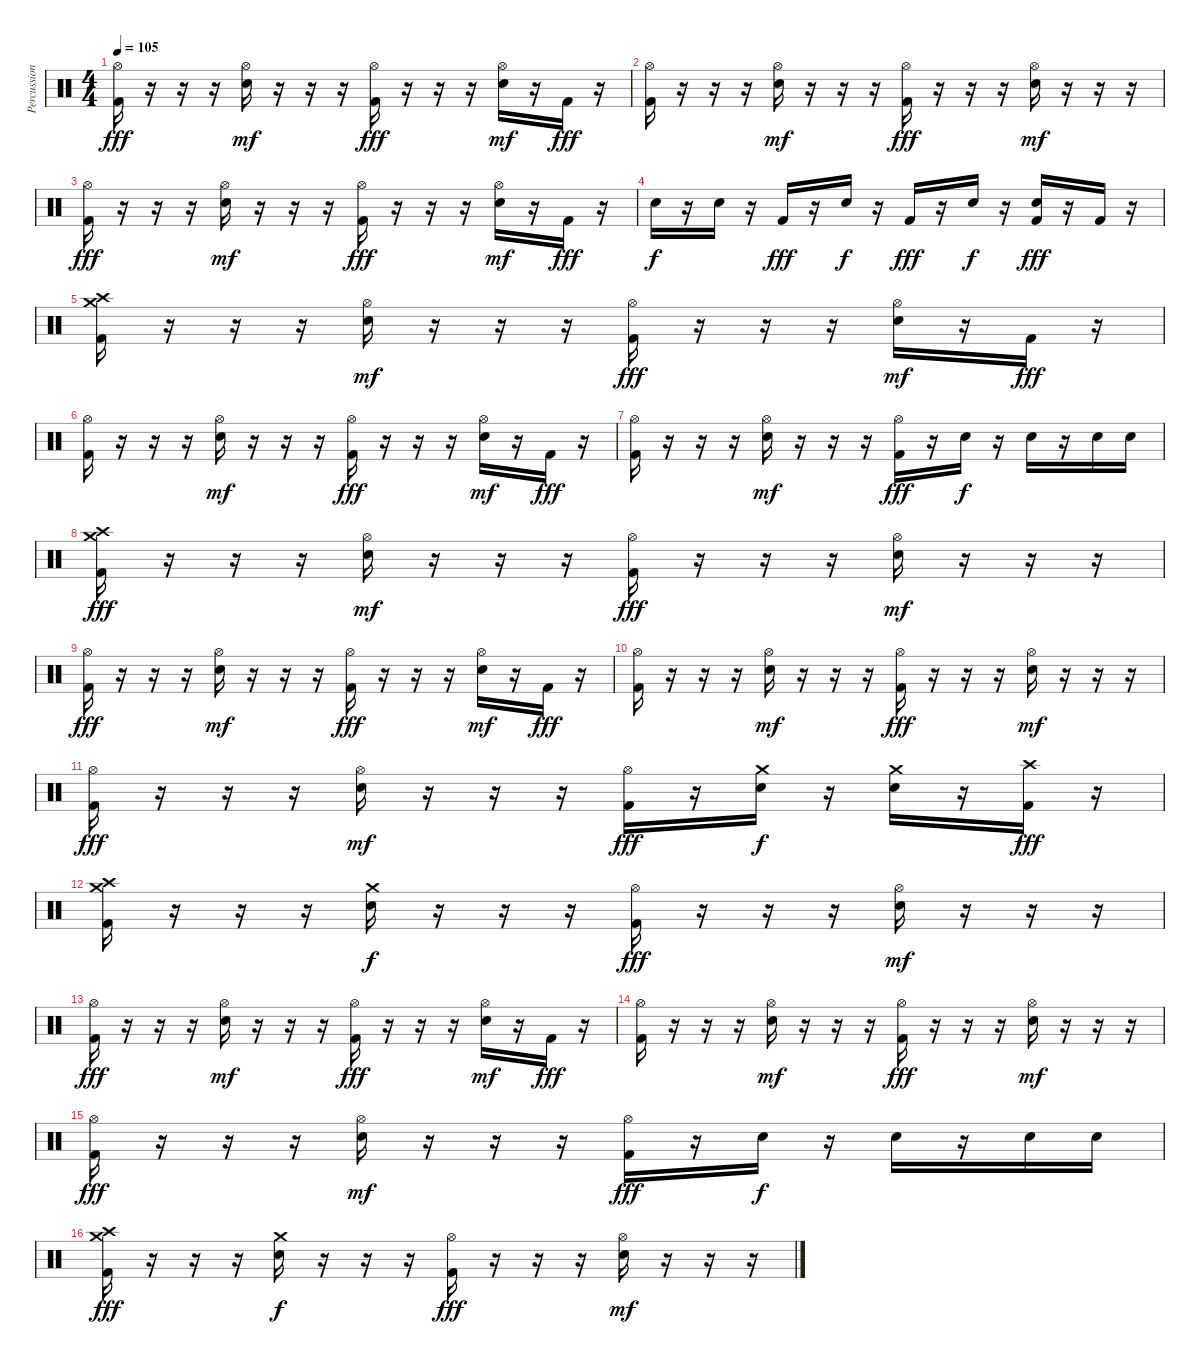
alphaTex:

\track ("Percussions" "Percussion") {instrument percussion}
\staff {score}
\articulation defaults
\ts (4 4)
\tempo 105
\clef neutral
\ks c
("Hi-Hat (open)" "Kick (hit) 2").16{dy fff} r.16 r.16 r.16 ("Hi-Hat (open)" "Electric Snare (hit)").16{dy mf} r.16 r.16 r.16 ("Hi-Hat (open)" "Kick (hit) 2").16{dy fff} r.16 r.16 r.16 ("Hi-Hat (open)" "Electric Snare (hit)").16{dy mf} r.16 "Kick (hit) 2".16{dy fff} r.16 |
("Hi-Hat (open)" "Kick (hit) 2").16 r.16 r.16 r.16 ("Hi-Hat (open)" "Electric Snare (hit)").16{dy mf} r.16 r.16 r.16 ("Hi-Hat (open)" "Kick (hit) 2").16{dy fff} r.16 r.16 r.16 ("Hi-Hat (open)" "Electric Snare (hit)").16{dy mf} r.16 r.16 r.16 |
("Hi-Hat (open)" "Kick (hit) 2").16{dy fff} r.16 r.16 r.16 ("Hi-Hat (open)" "Electric Snare (hit)").16{dy mf} r.16 r.16 r.16 ("Hi-Hat (open)" "Kick (hit) 2").16{dy fff} r.16 r.16 r.16 ("Hi-Hat (open)" "Electric Snare (hit)").16{dy mf} r.16 "Kick (hit) 2".16{dy fff} r.16 |
"Electric Snare (hit)".16{dy f} r.16 "Electric Snare (hit)".16 r.16 "Kick (hit) 2".16{dy fff} r.16 "Electric Snare (hit)".16{dy f} r.16 "Kick (hit) 2".16{dy fff} r.16 "Electric Snare (hit)".16{dy f} r.16 ("Electric Snare (hit)" "Kick (hit) 2").16{dy fff} r.16 "Kick (hit) 2".16 r.16 |
("Crash medium (hit)" "Crash high (hit)" "Kick (hit) 2").16 r.16 r.16 r.16 ("Hi-Hat (open)" "Electric Snare (hit)").16{dy mf} r.16 r.16 r.16 ("Hi-Hat (open)" "Kick (hit) 2").16{dy fff} r.16 r.16 r.16 ("Hi-Hat (open)" "Electric Snare (hit)").16{dy mf} r.16 "Kick (hit) 2".16{dy fff} r.16 |
("Hi-Hat (open)" "Kick (hit) 2").16 r.16 r.16 r.16 ("Hi-Hat (open)" "Electric Snare (hit)").16{dy mf} r.16 r.16 r.16 ("Hi-Hat (open)" "Kick (hit) 2").16{dy fff} r.16 r.16 r.16 ("Hi-Hat (open)" "Electric Snare (hit)").16{dy mf} r.16 "Kick (hit) 2".16{dy fff} r.16 |
("Hi-Hat (open)" "Kick (hit) 2").16 r.16 r.16 r.16 ("Hi-Hat (open)" "Electric Snare (hit)").16{dy mf} r.16 r.16 r.16 ("Hi-Hat (open)" "Kick (hit) 2").16{dy fff} r.16 "Electric Snare (hit)".16{dy f} r.16 "Electric Snare (hit)".16 r.16 "Electric Snare (hit)".16 "Electric Snare (hit)".16 |
("Crash medium (hit)" "Crash high (hit)" "Kick (hit) 2").16{dy fff} r.16 r.16 r.16 ("Hi-Hat (open)" "Electric Snare (hit)").16{dy mf} r.16 r.16 r.16 ("Hi-Hat (open)" "Kick (hit) 2").16{dy fff} r.16 r.16 r.16 ("Hi-Hat (open)" "Electric Snare (hit)").16{dy mf} r.16 r.16 r.16 |
("Hi-Hat (open)" "Kick (hit) 2").16{dy fff} r.16 r.16 r.16 ("Hi-Hat (open)" "Electric Snare (hit)").16{dy mf} r.16 r.16 r.16 ("Hi-Hat (open)" "Kick (hit) 2").16{dy fff} r.16 r.16 r.16 ("Hi-Hat (open)" "Electric Snare (hit)").16{dy mf} r.16 "Kick (hit) 2".16{dy fff} r.16 |
("Hi-Hat (open)" "Kick (hit) 2").16 r.16 r.16 r.16 ("Hi-Hat (open)" "Electric Snare (hit)").16{dy mf} r.16 r.16 r.16 ("Hi-Hat (open)" "Kick (hit) 2").16{dy fff} r.16 r.16 r.16 ("Hi-Hat (open)" "Electric Snare (hit)").16{dy mf} r.16 r.16 r.16 |
("Hi-Hat (open)" "Kick (hit) 2").16{dy fff} r.16 r.16 r.16 ("Hi-Hat (open)" "Electric Snare (hit)").16{dy mf} r.16 r.16 r.16 ("Hi-Hat (open)" "Kick (hit) 2").16{dy fff} r.16 ("Crash medium (hit)" "Electric Snare (hit)").16{dy f} r.16 ("Crash medium (hit)" "Electric Snare (hit)").16 r.16 ("Crash high (hit)" "Kick (hit) 2").16{dy fff} r.16 |
("Crash medium (hit)" "Crash high (hit)" "Kick (hit) 2").16 r.16 r.16 r.16 ("Crash medium (hit)" "Electric Snare (hit)").16{dy f} r.16 r.16 r.16 ("Hi-Hat (open)" "Kick (hit) 2").16{dy fff} r.16 r.16 r.16 ("Hi-Hat (open)" "Electric Snare (hit)").16{dy mf} r.16 r.16 r.16 |
("Hi-Hat (open)" "Kick (hit) 2").16{dy fff} r.16 r.16 r.16 ("Hi-Hat (open)" "Electric Snare (hit)").16{dy mf} r.16 r.16 r.16 ("Hi-Hat (open)" "Kick (hit) 2").16{dy fff} r.16 r.16 r.16 ("Hi-Hat (open)" "Electric Snare (hit)").16{dy mf} r.16 "Kick (hit) 2".16{dy fff} r.16 |
("Hi-Hat (open)" "Kick (hit) 2").16 r.16 r.16 r.16 ("Hi-Hat (open)" "Electric Snare (hit)").16{dy mf} r.16 r.16 r.16 ("Hi-Hat (open)" "Kick (hit) 2").16{dy fff} r.16 r.16 r.16 ("Hi-Hat (open)" "Electric Snare (hit)").16{dy mf} r.16 r.16 r.16 |
("Hi-Hat (open)" "Kick (hit) 2").16{dy fff} r.16 r.16 r.16 ("Hi-Hat (open)" "Electric Snare (hit)").16{dy mf} r.16 r.16 r.16 ("Hi-Hat (open)" "Kick (hit) 2").16{dy fff} r.16 "Electric Snare (hit)".16{dy f} r.16 "Electric Snare (hit)".16 r.16 "Electric Snare (hit)".16 "Electric Snare (hit)".16 |
("Crash medium (hit)" "Crash high (hit)" "Kick (hit) 2").16{dy fff} r.16 r.16 r.16 ("Crash medium (hit)" "Electric Snare (hit)").16{dy f} r.16 r.16 r.16 ("Hi-Hat (open)" "Kick (hit) 2").16{dy fff} r.16 r.16 r.16 ("Hi-Hat (open)" "Electric Snare (hit)").16{dy mf} r.16 r.16 r.16
